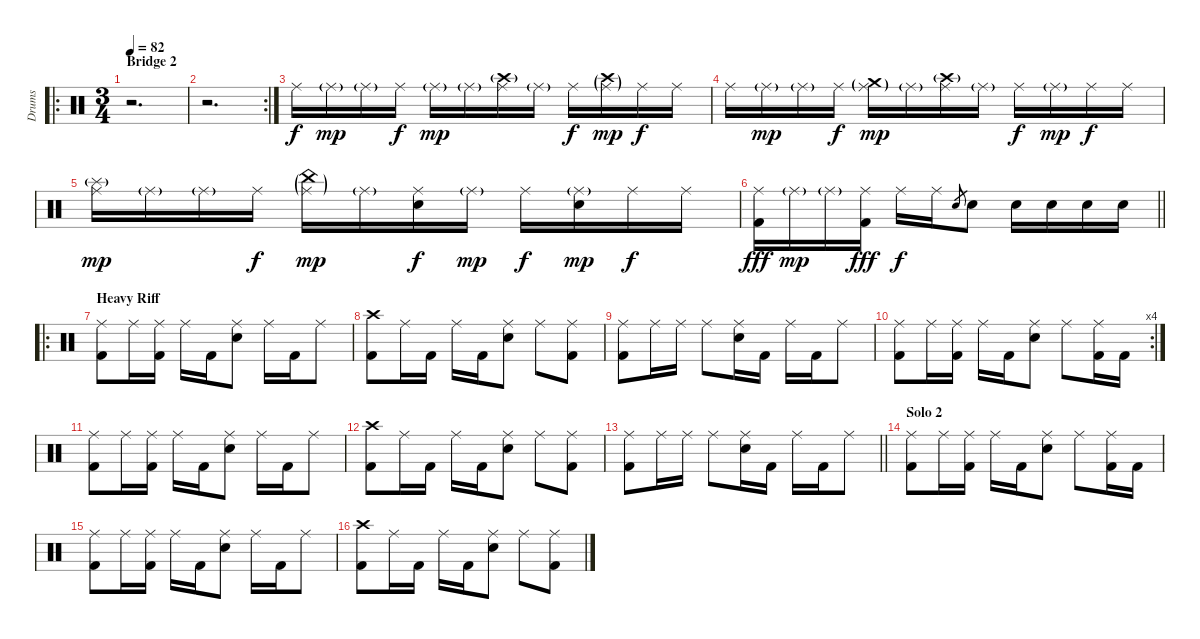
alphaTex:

\track ("Drums" "Drums") {instrument percussion}
\staff {score}
\articulation defaults
\ro
\ts (3 4)
\section ("" "Bridge 2")
\tempo 82
\clef neutral
\ks c
r.2{d dy f} |
\rc 2
r.2{d} |
"Ride (middle)".16 "Ride (middle)"{g}.16{dy mp} "Ride (middle)"{g}.16 "Ride (middle)".16{dy f} "Ride (middle)"{g}.16{dy mp} "Ride (middle)"{g}.16 ("Ride (middle)" "Crash high (hit)"{g}).16 "Ride (middle)"{g}.16 "Ride (middle)".16{dy f} ("Ride (middle)"{g} "Crash high (hit)"{g}).16{dy mp} "Ride (middle)".16{dy f} "Ride (middle)".16 |
"Ride (middle)".16 "Ride (middle)"{g}.16{dy mp} "Ride (middle)"{g}.16 "Ride (middle)".16{dy f} ("Ride (middle)"{g} "Crash medium (hit)"{g}).16{dy mp} "Ride (middle)"{g}.16 ("Ride (middle)" "Crash high (hit)"{g}).16 "Ride (middle)"{g}.16 "Ride (middle)".16{dy f} "Ride (middle)"{g}.16{dy mp} "Ride (middle)".16{dy f} "Ride (middle)".16 |
("Ride (middle)" "Splash (hit)"{g}).16{dy mp} "Ride (middle)"{g}.16 "Ride (middle)"{g}.16 "Ride (middle)".16{dy f} ("Ride (middle)"{g} "China (hit)"{g}).16{dy mp} "Ride (middle)"{g}.16 ("Ride (middle)" "Electric Snare (hit)").16{dy f} "Ride (middle)"{g}.16{dy mp} "Ride (middle)".16{dy f} ("Ride (middle)"{g} "Electric Snare (hit)").16{dy mp} "Ride (middle)".16{dy f} "Ride (middle)".16 |
\barLineRight lightlight
("Ride (middle)" "Kick (hit) 2").16{dy fff} "Ride (middle)"{g}.16{dy mp} "Ride (middle)"{g}.16 ("Ride (middle)" "Kick (hit) 2").16{dy fff} "Ride (middle)".16{dy f} "Ride (middle)".16 "Electric Snare (hit)".8{gr} "Electric Snare (hit)".8 "Electric Snare (hit)".16 "Electric Snare (hit)".16 "Electric Snare (hit)".16 "Electric Snare (hit)".16 |
\ro
\section ("" "Heavy Riff")
("Ride (middle)" "Kick (hit) 2").8 "Ride (middle)".16 ("Ride (middle)" "Kick (hit) 2").16 "Ride (middle)".16 "Kick (hit) 2".16 ("Ride (middle)" "Electric Snare (hit)").8 "Ride (middle)".16 "Kick (hit) 2".16 "Ride (middle)".8 |
("Crash high (hit)" "Kick (hit) 2").8 "Ride (middle)".16 "Kick (hit) 2".16 "Ride (middle)".16 "Kick (hit) 2".16 ("Ride (middle)" "Electric Snare (hit)").8 "Ride (middle)".8 ("Ride (middle)" "Kick (hit) 2").8 |
("Ride (middle)" "Kick (hit) 2").8 "Ride (middle)".16 "Ride (middle)".16 "Ride (middle)".8 ("Ride (middle)" "Electric Snare (hit)").16 "Kick (hit) 2".16 "Ride (middle)".16 "Kick (hit) 2".16 "Ride (middle)".8 |
\rc 4
("Ride (middle)" "Kick (hit) 2").8 "Ride (middle)".16 ("Ride (middle)" "Kick (hit) 2").16 "Ride (middle)".16 "Kick (hit) 2".16 ("Ride (middle)" "Electric Snare (hit)").8 "Ride (middle)".8 ("Ride (middle)" "Kick (hit) 2").16 "Kick (hit) 2".16 |
("Ride (middle)" "Kick (hit) 2").8 "Ride (middle)".16 ("Ride (middle)" "Kick (hit) 2").16 "Ride (middle)".16 "Kick (hit) 2".16 ("Ride (middle)" "Electric Snare (hit)").8 "Ride (middle)".16 "Kick (hit) 2".16 "Ride (middle)".8 |
("Crash high (hit)" "Kick (hit) 2").8 "Ride (middle)".16 "Kick (hit) 2".16 "Ride (middle)".16 "Kick (hit) 2".16 ("Ride (middle)" "Electric Snare (hit)").8 "Ride (middle)".8 ("Ride (middle)" "Kick (hit) 2").8 |
\barLineRight lightlight
("Ride (middle)" "Kick (hit) 2").8 "Ride (middle)".16 "Ride (middle)".16 "Ride (middle)".8 ("Ride (middle)" "Electric Snare (hit)").16 "Kick (hit) 2".16 "Ride (middle)".16 "Kick (hit) 2".16 "Ride (middle)".8 |
\section ("" "Solo 2")
("Ride (middle)" "Kick (hit) 2").8 "Ride (middle)".16 ("Ride (middle)" "Kick (hit) 2").16 "Ride (middle)".16 "Kick (hit) 2".16 ("Ride (middle)" "Electric Snare (hit)").8 "Ride (middle)".8 ("Ride (middle)" "Kick (hit) 2").16 "Kick (hit) 2".16 |
("Ride (middle)" "Kick (hit) 2").8 "Ride (middle)".16 ("Ride (middle)" "Kick (hit) 2").16 "Ride (middle)".16 "Kick (hit) 2".16 ("Ride (middle)" "Electric Snare (hit)").8 "Ride (middle)".16 "Kick (hit) 2".16 "Ride (middle)".8 |
("Crash high (hit)" "Kick (hit) 2").8 "Ride (middle)".16 "Kick (hit) 2".16 "Ride (middle)".16 "Kick (hit) 2".16 ("Ride (middle)" "Electric Snare (hit)").8 "Ride (middle)".8 ("Ride (middle)" "Kick (hit) 2").8
